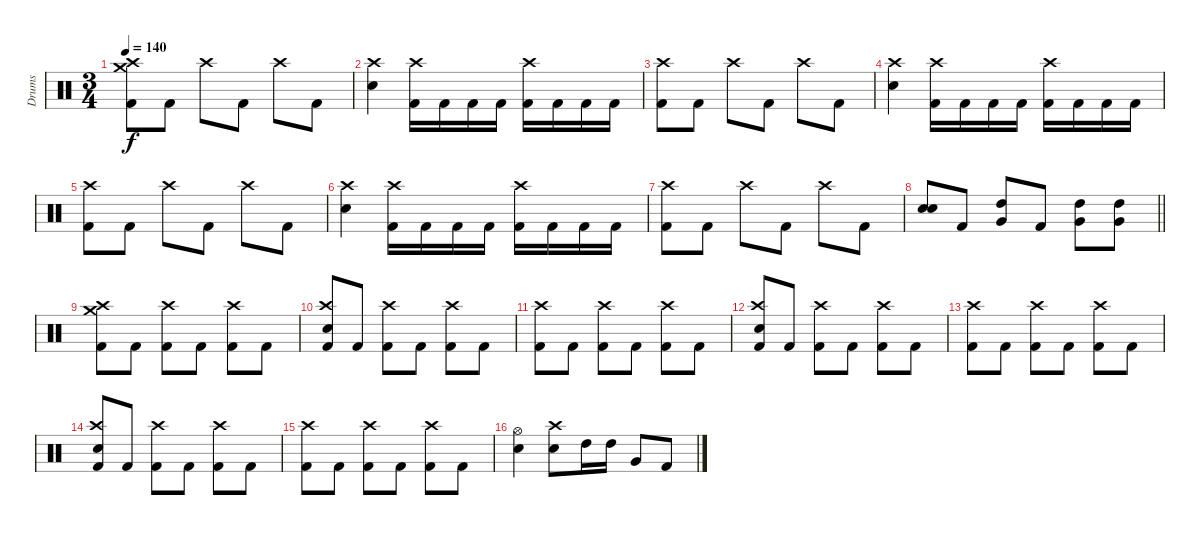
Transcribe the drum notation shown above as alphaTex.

\track ("Drums" "Drums") {instrument percussion}
\staff {score}
\articulation defaults
\ts (3 4)
\tempo 140
\clef neutral
\ks c
("Kick (hit) 2" "Crash high (hit)" "Crash medium (hit)").8{dy f} "Kick (hit) 2".8 "Crash high (hit)".8 "Kick (hit) 2".8 "Crash high (hit)".8 "Kick (hit) 2".8 |
("Electric Snare (hit)" "Crash high (hit)").4 ("Kick (hit) 2" "Crash high (hit)").16 "Kick (hit) 2".16 "Kick (hit) 2".16 "Kick (hit) 2".16 ("Kick (hit) 2" "Crash high (hit)").16 "Kick (hit) 2".16 "Kick (hit) 2".16 "Kick (hit) 2".16 |
("Kick (hit) 2" "Crash high (hit)").8 "Kick (hit) 2".8 "Crash high (hit)".8 "Kick (hit) 2".8 "Crash high (hit)".8 "Kick (hit) 2".8 |
("Electric Snare (hit)" "Crash high (hit)").4 ("Kick (hit) 2" "Crash high (hit)").16 "Kick (hit) 2".16 "Kick (hit) 2".16 "Kick (hit) 2".16 ("Kick (hit) 2" "Crash high (hit)").16 "Kick (hit) 2".16 "Kick (hit) 2".16 "Kick (hit) 2".16 |
("Kick (hit) 2" "Crash high (hit)").8 "Kick (hit) 2".8 "Crash high (hit)".8 "Kick (hit) 2".8 "Crash high (hit)".8 "Kick (hit) 2".8 |
("Electric Snare (hit)" "Crash high (hit)").4 ("Kick (hit) 2" "Crash high (hit)").16 "Kick (hit) 2".16 "Kick (hit) 2".16 "Kick (hit) 2".16 ("Kick (hit) 2" "Crash high (hit)").16 "Kick (hit) 2".16 "Kick (hit) 2".16 "Kick (hit) 2".16 |
("Kick (hit) 2" "Crash high (hit)").8 "Kick (hit) 2".8 "Crash high (hit)".8 "Kick (hit) 2".8 "Crash high (hit)".8 "Kick (hit) 2".8 |
\barLineRight lightlight
("Electric Snare (hit)" "Electric Snare (hit)").8 "Kick (hit) 2".8 ("Very Low Tom (hit)" "High Tom (hit)").8 "Kick (hit) 2".8 ("Very Low Tom (hit)" "High Tom (hit)").8 ("Very Low Tom (hit)" "High Tom (hit)").8 |
("Kick (hit) 2" "Crash high (hit)" "Crash medium (hit)").8 "Kick (hit) 2".8 ("Kick (hit) 2" "Crash high (hit)").8 "Kick (hit) 2".8 ("Kick (hit) 2" "Crash high (hit)").8 "Kick (hit) 2".8 |
("Kick (hit) 2" "Electric Snare (hit)" "Crash high (hit)").8 "Kick (hit) 2".8 ("Kick (hit) 2" "Crash high (hit)").8 "Kick (hit) 2".8 ("Kick (hit) 2" "Crash high (hit)").8 "Kick (hit) 2".8 |
("Kick (hit) 2" "Crash high (hit)").8 "Kick (hit) 2".8 ("Kick (hit) 2" "Crash high (hit)").8 "Kick (hit) 2".8 ("Kick (hit) 2" "Crash high (hit)").8 "Kick (hit) 2".8 |
("Kick (hit) 2" "Electric Snare (hit)" "Crash high (hit)").8 "Kick (hit) 2".8 ("Kick (hit) 2" "Crash high (hit)").8 "Kick (hit) 2".8 ("Kick (hit) 2" "Crash high (hit)").8 "Kick (hit) 2".8 |
("Kick (hit) 2" "Crash high (hit)").8 "Kick (hit) 2".8 ("Kick (hit) 2" "Crash high (hit)").8 "Kick (hit) 2".8 ("Kick (hit) 2" "Crash high (hit)").8 "Kick (hit) 2".8 |
("Kick (hit) 2" "Electric Snare (hit)" "Crash high (hit)").8 "Kick (hit) 2".8 ("Kick (hit) 2" "Crash high (hit)").8 "Kick (hit) 2".8 ("Kick (hit) 2" "Crash high (hit)").8 "Kick (hit) 2".8 |
("Kick (hit) 2" "Crash high (hit)").8 "Kick (hit) 2".8 ("Kick (hit) 2" "Crash high (hit)").8 "Kick (hit) 2".8 ("Kick (hit) 2" "Crash high (hit)").8 "Kick (hit) 2".8 |
("Electric Snare (hit)" "Hi-Hat (open)").4 ("Electric Snare (hit)" "Crash high (hit)").8 "High Tom (hit)".16 "High Tom (hit)".16 "Very Low Tom (hit)".8 "Kick (hit) 2".8
